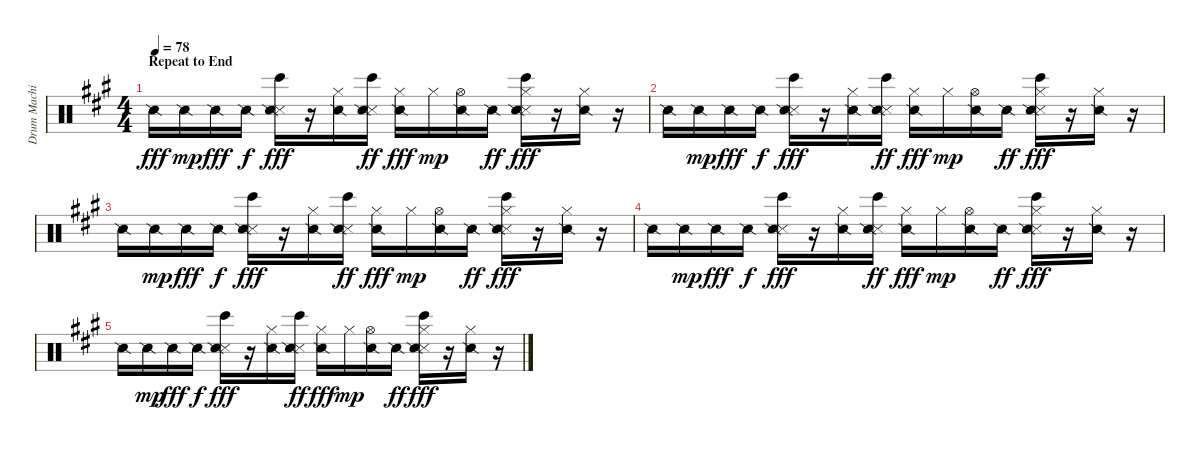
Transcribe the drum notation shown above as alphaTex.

\track ("Drum Machine" "Drum Machi") {instrument percussion}
\staff {score}
\articulation defaults
\ts (4 4)
\section ("" "Repeat to End")
\tempo 78
\clef neutral
\ks a "Snare (side stick) 2".16{dy fff} "Snare (side stick) 2".16{dy mp} "Snare (side stick) 2".16{dy fff} "Snare (side stick) 2".16{dy f}
("Bongo High (hit)" "Metronome (hit)" "Snare (side stick) 2").16{dy fff} r.16 ("Hi-Hat (closed)" "Snare (side stick) 2").16 ("Bongo High (hit)" "Metronome (hit)" "Snare (side stick) 2").16{dy ff} ("Hi-Hat (closed)" "Snare (side stick) 2").16{dy fff} "Hi-Hat (closed)".16{dy mp} ("Hi-Hat (open)" "Snare (side stick) 2").16 "Snare (side stick) 2".16{dy ff} ("Hi-Hat (closed)" "Bongo High (hit)" "Metronome (hit)" "Snare (side stick) 2").16{dy fff} r.16 ("Hi-Hat (closed)" "Snare (side stick) 2").16 r.16 |
"Snare (side stick) 2".16 "Snare (side stick) 2".16{dy mp} "Snare (side stick) 2".16{dy fff} "Snare (side stick) 2".16{dy f} ("Bongo High (hit)" "Metronome (hit)" "Snare (side stick) 2").16{dy fff} r.16 ("Hi-Hat (closed)" "Snare (side stick) 2").16 ("Bongo High (hit)" "Metronome (hit)" "Snare (side stick) 2").16{dy ff} ("Hi-Hat (closed)" "Snare (side stick) 2").16{dy fff} "Hi-Hat (closed)".16{dy mp} ("Hi-Hat (open)" "Snare (side stick) 2").16 "Snare (side stick) 2".16{dy ff} ("Hi-Hat (closed)" "Bongo High (hit)" "Metronome (hit)" "Snare (side stick) 2").16{dy fff} r.16 ("Hi-Hat (closed)" "Snare (side stick) 2").16 r.16 |
"Snare (side stick) 2".16 "Snare (side stick) 2".16{dy mp} "Snare (side stick) 2".16{dy fff} "Snare (side stick) 2".16{dy f} ("Bongo High (hit)" "Metronome (hit)" "Snare (side stick) 2").16{dy fff} r.16 ("Hi-Hat (closed)" "Snare (side stick) 2").16 ("Bongo High (hit)" "Metronome (hit)" "Snare (side stick) 2").16{dy ff} ("Hi-Hat (closed)" "Snare (side stick) 2").16{dy fff} "Hi-Hat (closed)".16{dy mp} ("Hi-Hat (open)" "Snare (side stick) 2").16 "Snare (side stick) 2".16{dy ff} ("Hi-Hat (closed)" "Bongo High (hit)" "Metronome (hit)" "Snare (side stick) 2").16{dy fff} r.16 ("Hi-Hat (closed)" "Snare (side stick) 2").16 r.16 |
"Snare (side stick) 2".16 "Snare (side stick) 2".16{dy mp} "Snare (side stick) 2".16{dy fff} "Snare (side stick) 2".16{dy f} ("Bongo High (hit)" "Metronome (hit)" "Snare (side stick) 2").16{dy fff} r.16 ("Hi-Hat (closed)" "Snare (side stick) 2").16 ("Bongo High (hit)" "Metronome (hit)" "Snare (side stick) 2").16{dy ff} ("Hi-Hat (closed)" "Snare (side stick) 2").16{dy fff} "Hi-Hat (closed)".16{dy mp} ("Hi-Hat (open)" "Snare (side stick) 2").16 "Snare (side stick) 2".16{dy ff} ("Hi-Hat (closed)" "Bongo High (hit)" "Metronome (hit)" "Snare (side stick) 2").16{dy fff} r.16 ("Hi-Hat (closed)" "Snare (side stick) 2").16 r.16 |
"Snare (side stick) 2".16 "Snare (side stick) 2".16{dy mp} "Snare (side stick) 2".16{dy fff} "Snare (side stick) 2".16{dy f} ("Bongo High (hit)" "Metronome (hit)" "Snare (side stick) 2").16{dy fff} r.16 ("Hi-Hat (closed)" "Snare (side stick) 2").16 ("Bongo High (hit)" "Metronome (hit)" "Snare (side stick) 2").16{dy ff} ("Hi-Hat (closed)" "Snare (side stick) 2").16{dy fff} "Hi-Hat (closed)".16{dy mp} ("Hi-Hat (open)" "Snare (side stick) 2").16 "Snare (side stick) 2".16{dy ff} ("Hi-Hat (closed)" "Bongo High (hit)" "Metronome (hit)" "Snare (side stick) 2").16{dy fff} r.16 ("Hi-Hat (closed)" "Snare (side stick) 2").16 r.16
